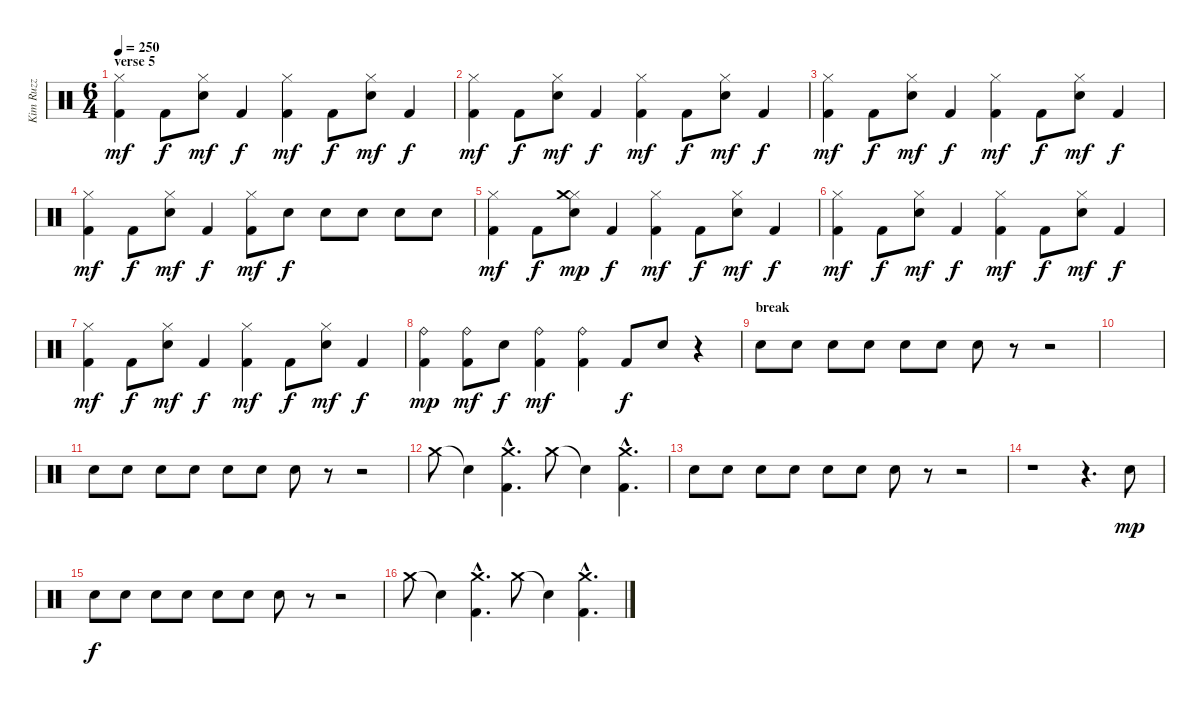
\track ("Kim Ruzz" "Kim Ruzz") {instrument percussion}
\staff {score}
\articulation defaults
\ts (6 4)
\section ("" "verse 5")
\tempo 250
\clef neutral
\ks c
("Kick (hit) 2" "Hi-Hat (closed)").4{dy mf} "Kick (hit) 2".8{dy f} ("Hi-Hat (closed)" "Snare (hit) 2").8{dy mf} "Kick (hit) 2".4{dy f} ("Kick (hit) 2" "Hi-Hat (closed)").4{dy mf} "Kick (hit) 2".8{dy f} ("Hi-Hat (closed)" "Snare (hit) 2").8{dy mf} "Kick (hit) 2".4{dy f} |
("Kick (hit) 2" "Hi-Hat (closed)").4{dy mf} "Kick (hit) 2".8{dy f} ("Hi-Hat (closed)" "Snare (hit) 2").8{dy mf} "Kick (hit) 2".4{dy f} ("Kick (hit) 2" "Hi-Hat (closed)").4{dy mf} "Kick (hit) 2".8{dy f} ("Hi-Hat (closed)" "Snare (hit) 2").8{dy mf} "Kick (hit) 2".4{dy f} |
("Kick (hit) 2" "Hi-Hat (closed)").4{dy mf} "Kick (hit) 2".8{dy f} ("Hi-Hat (closed)" "Snare (hit) 2").8{dy mf} "Kick (hit) 2".4{dy f} ("Kick (hit) 2" "Hi-Hat (closed)").4{dy mf} "Kick (hit) 2".8{dy f} ("Hi-Hat (closed)" "Snare (hit) 2").8{dy mf} "Kick (hit) 2".4{dy f} |
("Kick (hit) 2" "Hi-Hat (closed)").4{dy mf} "Kick (hit) 2".8{dy f} ("Hi-Hat (closed)" "Snare (hit) 2").8{dy mf} "Kick (hit) 2".4{dy f} ("Kick (hit) 2" "Hi-Hat (closed)").8{dy mf} "Snare (hit) 2".8{dy f} "Snare (hit) 2".8 "Snare (hit) 2".8 "Snare (hit) 2".8 "Snare (hit) 2".8 |
("Kick (hit) 2" "Hi-Hat (closed)").4{dy mf} "Kick (hit) 2".8{dy f} ("Hi-Hat (closed)" "Snare (hit) 2" "Crash medium (hit)").8{dy mp} "Kick (hit) 2".4{dy f} ("Kick (hit) 2" "Hi-Hat (closed)").4{dy mf} "Kick (hit) 2".8{dy f} ("Hi-Hat (closed)" "Snare (hit) 2").8{dy mf} "Kick (hit) 2".4{dy f} |
("Kick (hit) 2" "Hi-Hat (closed)").4{dy mf} "Kick (hit) 2".8{dy f} ("Hi-Hat (closed)" "Snare (hit) 2").8{dy mf} "Kick (hit) 2".4{dy f} ("Kick (hit) 2" "Hi-Hat (closed)").4{dy mf} "Kick (hit) 2".8{dy f} ("Hi-Hat (closed)" "Snare (hit) 2").8{dy mf} "Kick (hit) 2".4{dy f} |
("Kick (hit) 2" "Hi-Hat (closed)").4{dy mf} "Kick (hit) 2".8{dy f} ("Hi-Hat (closed)" "Snare (hit) 2").8{dy mf} "Kick (hit) 2".4{dy f} ("Kick (hit) 2" "Hi-Hat (closed)").4{dy mf} "Kick (hit) 2".8{dy f} ("Hi-Hat (closed)" "Snare (hit) 2").8{dy mf} "Kick (hit) 2".4{dy f} |
("Kick (hit) 2" "Ride (bell)").4{dy mp} ("Kick (hit) 2" "Ride (bell)").8{dy mf} "Snare (hit) 2".8{dy f} ("Kick (hit) 2" "Ride (bell)").4{dy mf} ("Kick (hit) 2" "Ride (bell)").4 "Kick (hit) 2".8{dy f} "Snare (hit) 2".8 r.4 |
\section ("" "break")
"Snare (hit) 2".8 "Snare (hit) 2".8 "Snare (hit) 2".8 "Snare (hit) 2".8 "Snare (hit) 2".8 "Snare (hit) 2".8 "Snare (hit) 2".8 r.8 r.2 |
|
"Snare (hit) 2".8 "Snare (hit) 2".8 "Snare (hit) 2".8 "Snare (hit) 2".8 "Snare (hit) 2".8 "Snare (hit) 2".8 "Snare (hit) 2".8 r.8 r.2 |
"Crash medium (hit)".8 "Snare (hit)"{t}.4 ("Kick (hit) 2"{hac} "Crash medium (hit)"{hac}).4{d} "Crash medium (hit)".8 "Snare (hit)"{t}.4 ("Kick (hit) 2"{hac} "Crash medium (hit)"{hac}).4{d} |
"Snare (hit) 2".8 "Snare (hit) 2".8 "Snare (hit) 2".8 "Snare (hit) 2".8 "Snare (hit) 2".8 "Snare (hit) 2".8 "Snare (hit) 2".8 r.8 r.2 |
r.1 r.4{d} "Snare (hit) 2".8{dy mp} |
"Snare (hit) 2".8{dy f} "Snare (hit) 2".8 "Snare (hit) 2".8 "Snare (hit) 2".8 "Snare (hit) 2".8 "Snare (hit) 2".8 "Snare (hit) 2".8 r.8 r.2 |
"Crash medium (hit)".8 "Snare (hit)"{t}.4 ("Kick (hit) 2"{hac} "Crash medium (hit)"{hac}).4{d} "Crash medium (hit)".8 "Snare (hit)"{t}.4 ("Kick (hit) 2"{hac} "Crash medium (hit)"{hac}).4{d}
